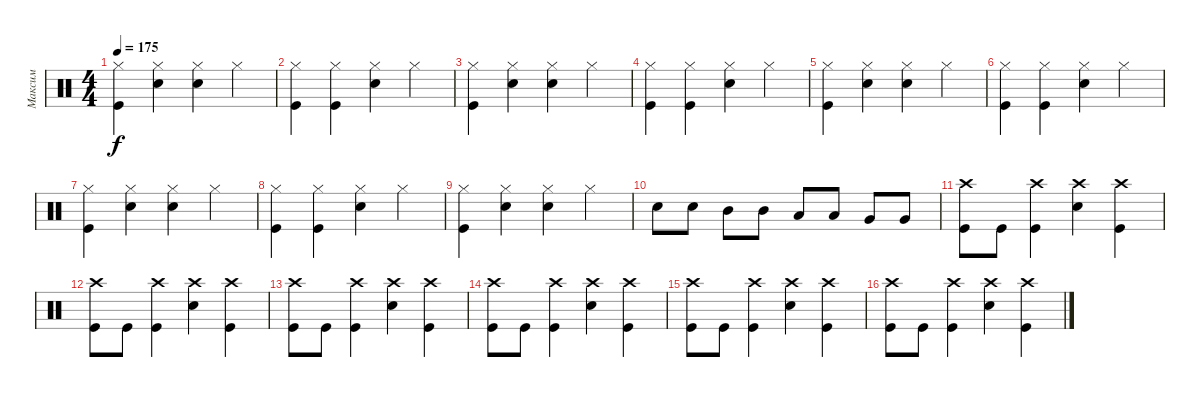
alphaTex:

\track ("Максим" "Максим") {instrument percussion}
\staff {score}
\articulation defaults
\ts (4 4)
\tempo 175
\clef neutral
\ks c
("Hi-Hat (closed)" "Kick (hit)").4{dy f} ("Snare (hit)" "Hi-Hat (closed)").4 ("Snare (hit) 2" "Hi-Hat (closed)").4 "Hi-Hat (closed)".4 |
("Kick (hit)" "Hi-Hat (closed)").4 ("Kick (hit)" "Hi-Hat (closed)").4 ("Snare (hit) 2" "Hi-Hat (closed)").4 "Hi-Hat (closed)".4 |
("Hi-Hat (closed)" "Kick (hit)").4 ("Snare (hit)" "Hi-Hat (closed)").4 ("Snare (hit) 2" "Hi-Hat (closed)").4 "Hi-Hat (closed)".4 |
("Kick (hit)" "Hi-Hat (closed)").4 ("Kick (hit)" "Hi-Hat (closed)").4 ("Snare (hit) 2" "Hi-Hat (closed)").4 "Hi-Hat (closed)".4 |
("Hi-Hat (closed)" "Kick (hit)").4 ("Snare (hit)" "Hi-Hat (closed)").4 ("Snare (hit) 2" "Hi-Hat (closed)").4 "Hi-Hat (closed)".4 |
("Kick (hit)" "Hi-Hat (closed)").4 ("Kick (hit)" "Hi-Hat (closed)").4 ("Snare (hit) 2" "Hi-Hat (closed)").4 "Hi-Hat (closed)".4 |
("Hi-Hat (closed)" "Kick (hit)").4 ("Snare (hit)" "Hi-Hat (closed)").4 ("Snare (hit) 2" "Hi-Hat (closed)").4 "Hi-Hat (closed)".4 |
("Kick (hit)" "Hi-Hat (closed)").4 ("Kick (hit)" "Hi-Hat (closed)").4 ("Snare (hit) 2" "Hi-Hat (closed)").4 "Hi-Hat (closed)".4 |
("Hi-Hat (closed)" "Kick (hit)").4 ("Snare (hit)" "Hi-Hat (closed)").4 ("Snare (hit) 2" "Hi-Hat (closed)").4 "Hi-Hat (closed)".4 |
"Snare (hit) 2".8 "Snare (hit) 2".8 "Mid Tom (hit)".8 "Mid Tom (hit)".8 "Low Tom (hit)".8 "Low Tom (hit)".8 "Very Low Tom (hit)".8 "Very Low Tom (hit)".8 |
("Crash high (hit)" "Kick (hit)").8 "Kick (hit)".8 ("Kick (hit)" "Crash high (hit)").4 ("Crash high (hit)" "Snare (hit) 2").4 ("Kick (hit)" "Crash high (hit)").4 |
("Crash high (hit)" "Kick (hit)").8 "Kick (hit)".8 ("Kick (hit)" "Crash high (hit)").4 ("Crash high (hit)" "Snare (hit) 2").4 ("Kick (hit)" "Crash high (hit)").4 |
("Crash high (hit)" "Kick (hit)").8 "Kick (hit)".8 ("Kick (hit)" "Crash high (hit)").4 ("Crash high (hit)" "Snare (hit) 2").4 ("Kick (hit)" "Crash high (hit)").4 |
("Crash high (hit)" "Kick (hit)").8 "Kick (hit)".8 ("Kick (hit)" "Crash high (hit)").4 ("Crash high (hit)" "Snare (hit) 2").4 ("Kick (hit)" "Crash high (hit)").4 |
("Crash high (hit)" "Kick (hit)").8 "Kick (hit)".8 ("Kick (hit)" "Crash high (hit)").4 ("Crash high (hit)" "Snare (hit) 2").4 ("Kick (hit)" "Crash high (hit)").4 |
("Crash high (hit)" "Kick (hit)").8 "Kick (hit)".8 ("Kick (hit)" "Crash high (hit)").4 ("Crash high (hit)" "Snare (hit) 2").4 ("Kick (hit)" "Crash high (hit)").4
